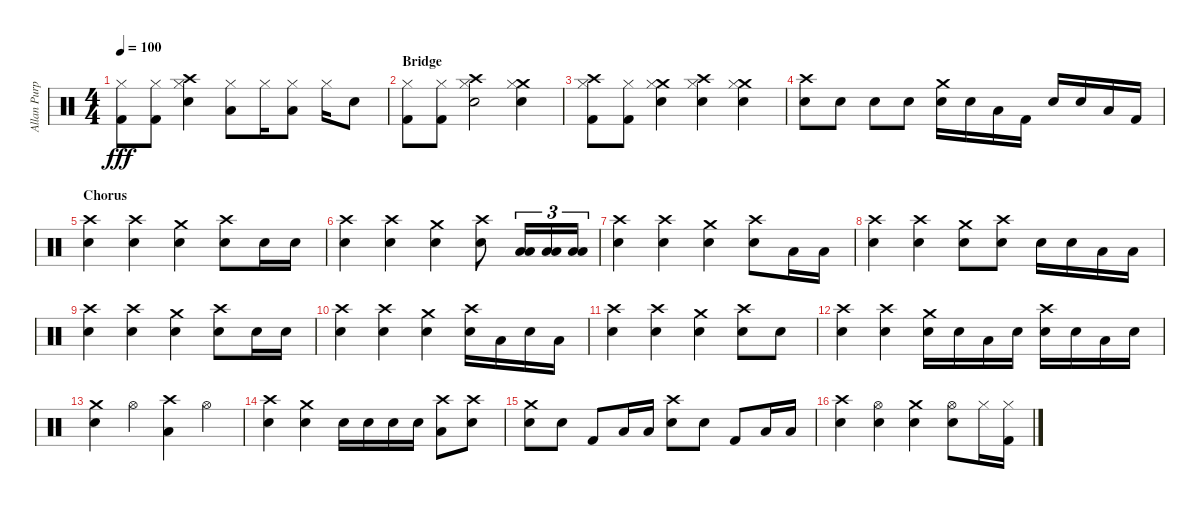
\track ("Allan Purple" "Allan Purp") {instrument percussion}
\staff {score}
\articulation defaults
\ts (4 4)
\tempo 100
\clef neutral
\ks c
("Hi-Hat (closed)" "Kick (hit) 2").8{dy fff} ("Hi-Hat (closed)" "Kick (hit) 2").8 ("Crash high (hit)" "Hi-Hat (closed)" "Snare (hit) 2").4 ("Hi-Hat (closed)" "Low Tom (hit)").8 "Hi-Hat (closed)".16 ("Hi-Hat (closed)" "Low Tom (hit)").8 "Hi-Hat (closed)".16 "Electric Snare (hit)".8 |
\section ("" "Bridge")
("Hi-Hat (closed)" "Kick (hit) 2").8 ("Hi-Hat (closed)" "Kick (hit) 2").8 ("Crash high (hit)" "Hi-Hat (closed)" "Snare (hit) 2").2 ("Crash medium (hit)" "Hi-Hat (closed)" "Electric Snare (hit)").4 |
("Crash high (hit)" "Hi-Hat (closed)" "Kick (hit) 2").8 ("Hi-Hat (closed)" "Kick (hit) 2").8 ("Crash medium (hit)" "Hi-Hat (closed)" "Snare (hit) 2").4 ("Crash high (hit)" "Hi-Hat (closed)" "Electric Snare (hit)").4 ("Crash medium (hit)" "Hi-Hat (closed)" "Electric Snare (hit)").4 |
("Crash high (hit)" "Electric Snare (hit)").8 "Electric Snare (hit)".8 "Electric Snare (hit)".8 "Electric Snare (hit)".8 ("Crash medium (hit)" "Electric Snare (hit)").16 "Electric Snare (hit)".16 "Low Tom (hit)".16 "Kick (hit) 2".16 "Electric Snare (hit)".16 "Electric Snare (hit)".16 "Low Tom (hit)".16 "Kick (hit) 2".16 |
\section ("" "Chorus")
("Crash high (hit)" "Electric Snare (hit)").4 ("Crash high (hit)" "Electric Snare (hit)").4 ("Crash medium (hit)" "Electric Snare (hit)").4 ("Crash high (hit)" "Electric Snare (hit)").8 "Electric Snare (hit)".16 "Electric Snare (hit)".16 |
("Crash high (hit)" "Electric Snare (hit)").4 ("Crash high (hit)" "Electric Snare (hit)").4 ("Crash medium (hit)" "Electric Snare (hit)").4 ("Crash high (hit)" "Electric Snare (hit)").8 ("Low Tom (hit)" "Low Tom (hit)").16{tu (3 2)} ("Low Tom (hit)" "Low Tom (hit)").16{tu (3 2)} ("Low Tom (hit)" "Low Tom (hit)").16{tu (3 2)} |
("Crash high (hit)" "Electric Snare (hit)").4 ("Crash high (hit)" "Electric Snare (hit)").4 ("Crash medium (hit)" "Electric Snare (hit)").4 ("Crash high (hit)" "Electric Snare (hit)").8 "Low Tom (hit)".16 "Low Tom (hit)".16 |
("Crash high (hit)" "Electric Snare (hit)").4 ("Crash high (hit)" "Electric Snare (hit)").4 ("Crash medium (hit)" "Electric Snare (hit)").8 ("Crash high (hit)" "Electric Snare (hit)").8 "Electric Snare (hit)".16 "Electric Snare (hit)".16 "Low Tom (hit)".16 "Low Tom (hit)".16 |
("Crash high (hit)" "Electric Snare (hit)").4 ("Crash high (hit)" "Electric Snare (hit)").4 ("Crash medium (hit)" "Electric Snare (hit)").4 ("Crash high (hit)" "Electric Snare (hit)").8 "Electric Snare (hit)".16 "Electric Snare (hit)".16 |
("Crash high (hit)" "Electric Snare (hit)").4 ("Crash high (hit)" "Electric Snare (hit)").4 ("Crash medium (hit)" "Electric Snare (hit)").4 ("Crash high (hit)" "Electric Snare (hit)").16 "Low Tom (hit)".16 "Electric Snare (hit)".16 "Low Tom (hit)".16 |
("Crash high (hit)" "Electric Snare (hit)").4 ("Crash high (hit)" "Electric Snare (hit)").4 ("Crash medium (hit)" "Electric Snare (hit)").4 ("Crash high (hit)" "Electric Snare (hit)").8 "Electric Snare (hit)".8 |
("Crash high (hit)" "Electric Snare (hit)").4 ("Crash high (hit)" "Electric Snare (hit)").4 ("Crash medium (hit)" "Electric Snare (hit)").16 "Electric Snare (hit)".16 "Low Tom (hit)".16 "Electric Snare (hit)".16 ("Crash high (hit)" "Electric Snare (hit)").16 "Electric Snare (hit)".16 "Low Tom (hit)".16 "Electric Snare (hit)".16 |
("Crash medium (hit)" "Electric Snare (hit)").4 "Hi-Hat (open)".4 ("Crash high (hit)" "Low Tom (hit)").4 "Hi-Hat (open)".4 |
("Crash high (hit)" "Electric Snare (hit)").4 ("Crash medium (hit)" "Electric Snare (hit)").4 "Electric Snare (hit)".16 "Electric Snare (hit)".16 "Electric Snare (hit)".16 "Electric Snare (hit)".16 ("Crash high (hit)" "Low Tom (hit)").8 ("Crash high (hit)" "Electric Snare (hit)").8 |
("Crash medium (hit)" "Electric Snare (hit)").8 "Electric Snare (hit)".8 "Kick (hit) 2".8 "Low Tom (hit)".16 "Low Tom (hit)".16 ("Crash high (hit)" "Electric Snare (hit)").8 "Electric Snare (hit)".8 "Kick (hit) 2".8 "Low Tom (hit)".16 "Low Tom (hit)".16 |
("Crash high (hit)" "Electric Snare (hit)").4 ("Hi-Hat (open)" "Electric Snare (hit)").4 ("Crash medium (hit)" "Electric Snare (hit)").4 ("Hi-Hat (open)" "Electric Snare (hit)").8 "Hi-Hat (closed)".16 ("Hi-Hat (closed)" "Kick (hit) 2").16
